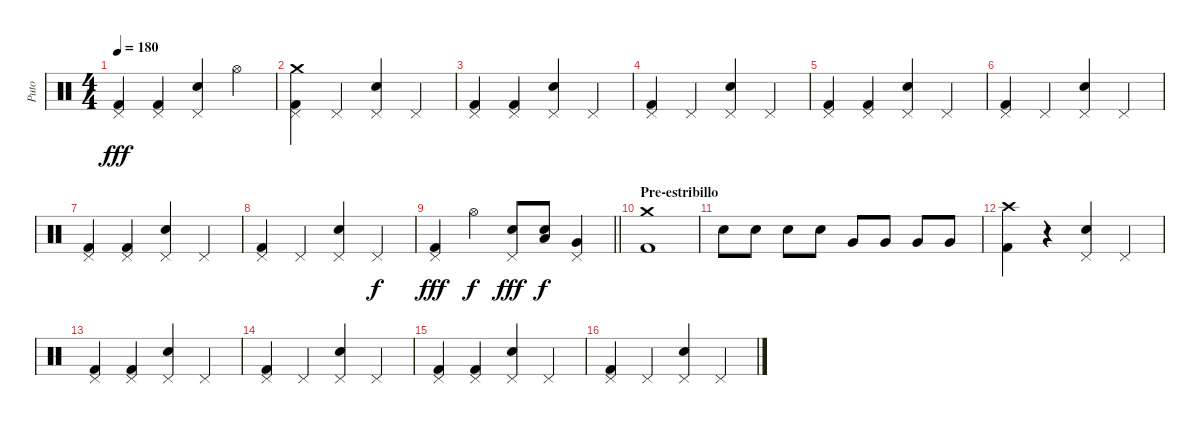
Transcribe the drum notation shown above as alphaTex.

\track ("Puto" "Puto") {instrument percussion}
\staff {score}
\articulation defaults
\ts (4 4)
\tempo 180
\clef neutral
\ks c
("Kick (hit) 2" "Pedal Hi-Hat (hit)").4{dy fff} ("Kick (hit) 2" "Pedal Hi-Hat (hit)").4 ("Snare (hit) 2" "Pedal Hi-Hat (hit)").4 "Hi-Hat (open)".4 |
("Kick (hit) 2" "Crash medium (hit)" "Pedal Hi-Hat (hit)").4 "Pedal Hi-Hat (hit)".4 ("Snare (hit) 2" "Pedal Hi-Hat (hit)").4 "Pedal Hi-Hat (hit)".4 |
("Kick (hit) 2" "Pedal Hi-Hat (hit)").4 ("Kick (hit) 2" "Pedal Hi-Hat (hit)").4 ("Snare (hit) 2" "Pedal Hi-Hat (hit)").4 "Pedal Hi-Hat (hit)".4 |
("Kick (hit) 2" "Pedal Hi-Hat (hit)").4 "Pedal Hi-Hat (hit)".4 ("Snare (hit) 2" "Pedal Hi-Hat (hit)").4 "Pedal Hi-Hat (hit)".4 |
("Kick (hit) 2" "Pedal Hi-Hat (hit)").4 ("Kick (hit) 2" "Pedal Hi-Hat (hit)").4 ("Snare (hit) 2" "Pedal Hi-Hat (hit)").4 "Pedal Hi-Hat (hit)".4 |
("Kick (hit) 2" "Pedal Hi-Hat (hit)").4 "Pedal Hi-Hat (hit)".4 ("Snare (hit) 2" "Pedal Hi-Hat (hit)").4 "Pedal Hi-Hat (hit)".4 |
("Kick (hit) 2" "Pedal Hi-Hat (hit)").4 ("Kick (hit) 2" "Pedal Hi-Hat (hit)").4 ("Snare (hit) 2" "Pedal Hi-Hat (hit)").4 "Pedal Hi-Hat (hit)".4 |
("Kick (hit) 2" "Pedal Hi-Hat (hit)").4 "Pedal Hi-Hat (hit)".4 ("Snare (hit) 2" "Pedal Hi-Hat (hit)").4 "Pedal Hi-Hat (hit)".4{dy f} |
\barLineRight lightlight
("Kick (hit) 2" "Pedal Hi-Hat (hit)").4{dy fff} "Hi-Hat (open)".4{dy f} ("Snare (hit) 2" "Pedal Hi-Hat (hit)").8{dy fff} ("Low Tom (hit)" "Snare (hit) 2").8{dy f} ("Very Low Tom (hit)" "Pedal Hi-Hat (hit)").4 |
\section ("" "Pre-estribillo")
("Kick (hit) 2" "Crash medium (hit)").1 |
"Snare (hit) 2".8 "Snare (hit) 2".8 "Snare (hit) 2".8 "Snare (hit) 2".8 "Very Low Tom (hit)".8 "Very Low Tom (hit)".8 "Very Low Tom (hit)".8 "Very Low Tom (hit)".8 |
("Kick (hit) 2" "Crash high (hit)").4 r.4 ("Snare (hit) 2" "Pedal Hi-Hat (hit)").4 "Pedal Hi-Hat (hit)".4 |
("Kick (hit) 2" "Pedal Hi-Hat (hit)").4 ("Kick (hit) 2" "Pedal Hi-Hat (hit)").4 ("Snare (hit) 2" "Pedal Hi-Hat (hit)").4 "Pedal Hi-Hat (hit)".4 |
("Kick (hit) 2" "Pedal Hi-Hat (hit)").4 "Pedal Hi-Hat (hit)".4 ("Snare (hit) 2" "Pedal Hi-Hat (hit)").4 "Pedal Hi-Hat (hit)".4 |
("Kick (hit) 2" "Pedal Hi-Hat (hit)").4 ("Kick (hit) 2" "Pedal Hi-Hat (hit)").4 ("Snare (hit) 2" "Pedal Hi-Hat (hit)").4 "Pedal Hi-Hat (hit)".4 |
("Kick (hit) 2" "Pedal Hi-Hat (hit)").4 "Pedal Hi-Hat (hit)".4 ("Snare (hit) 2" "Pedal Hi-Hat (hit)").4 "Pedal Hi-Hat (hit)".4
